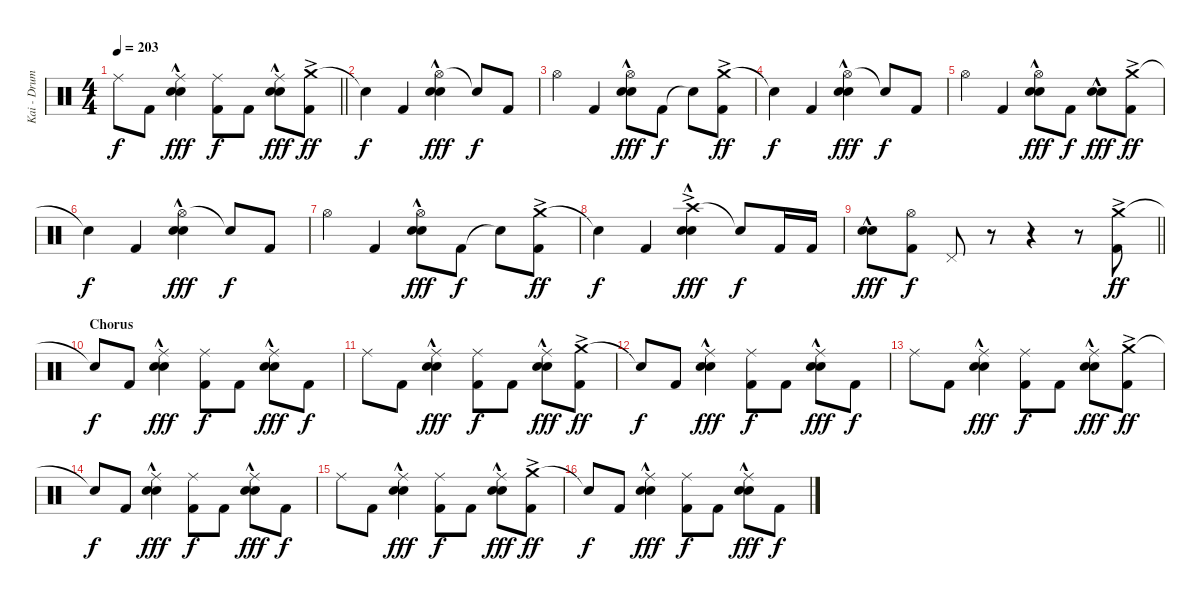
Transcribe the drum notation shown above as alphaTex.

\track ("Kai - Drums" "Kai - Drum") {instrument percussion}
\staff {score}
\articulation defaults
\ts (4 4)
\tempo 203
\clef neutral
\barLineRight lightlight
\ks c "Ride (middle)".8{dy f} "Kick (hit) 2".8
("Ride (middle)" "Electric Snare (hit)"{hac} "Snare (hit) 2"{hac}).4{dy fff} ("Ride (middle)" "Kick (hit) 2").8{dy f} "Kick (hit) 2".8 ("Ride (middle)" "Electric Snare (hit)"{hac} "Snare (hit) 2"{hac}).8{dy fff} ("Crash medium (hit)"{ac} "Kick (hit) 2").8{dy ff} |
"Snare (hit)"{t}.4{dy f} "Kick (hit) 2".4 ("Hi-Hat (open)" "Electric Snare (hit)"{hac} "Snare (hit) 2"{hac}).4{dy fff} "Snare (hit)"{t}.8{dy f} "Kick (hit) 2".8 |
"Hi-Hat (open)".4 "Kick (hit) 2".4 ("Hi-Hat (open)" "Electric Snare (hit)"{hac} "Snare (hit) 2"{hac}).8{dy fff} "Kick (hit) 2".8{dy f} "Snare (hit)"{t}.8 ("Crash medium (hit)"{ac} "Kick (hit) 2").8{dy ff} |
"Snare (hit)"{t}.4{dy f} "Kick (hit) 2".4 ("Hi-Hat (open)" "Electric Snare (hit)"{hac} "Snare (hit) 2"{hac}).4{dy fff} "Snare (hit)"{t}.8{dy f} "Kick (hit) 2".8 |
"Hi-Hat (open)".4 "Kick (hit) 2".4 ("Hi-Hat (open)" "Electric Snare (hit)"{hac} "Snare (hit) 2"{hac}).8{dy fff} "Kick (hit) 2".8{dy f} ("Electric Snare (hit)"{hac} "Snare (hit) 2"{hac}).8{dy fff} ("Crash medium (hit)"{ac} "Kick (hit) 2").8{dy ff} |
"Snare (hit)"{t}.4{dy f} "Kick (hit) 2".4 ("Hi-Hat (open)" "Electric Snare (hit)"{hac} "Snare (hit) 2"{hac}).4{dy fff} "Snare (hit)"{t}.8{dy f} "Kick (hit) 2".8 |
"Hi-Hat (open)".4 "Kick (hit) 2".4 ("Hi-Hat (open)" "Electric Snare (hit)"{hac} "Snare (hit) 2"{hac}).8{dy fff} "Kick (hit) 2".8{dy f} "Snare (hit)"{t}.8 ("Crash medium (hit)"{ac} "Kick (hit) 2").8{dy ff} |
"Snare (hit)"{t}.4{dy f} "Kick (hit) 2".4 ("Crash high (hit)"{ac} "Electric Snare (hit)"{hac} "Snare (hit) 2"{hac}).4{dy fff} "Snare (hit)"{t}.8{dy f} "Kick (hit) 2".16 "Kick (hit) 2".16 |
\barLineRight lightlight
("Electric Snare (hit)" "Snare (hit) 2"{hac}).8{dy fff} ("Hi-Hat (open)" "Kick (hit) 2").8{dy f} "Pedal Hi-Hat (hit)".8 r.8 r.4 r.8 ("Crash medium (hit)"{ac} "Kick (hit) 2").8{dy ff} |
\section ("" "Chorus")
"Snare (hit)"{t}.8{dy f} "Kick (hit) 2".8 ("Ride (middle)" "Electric Snare (hit)"{hac} "Snare (hit) 2"{hac}).4{dy fff} ("Ride (middle)" "Kick (hit) 2").8{dy f} "Kick (hit) 2".8 ("Ride (middle)" "Electric Snare (hit)"{hac} "Snare (hit) 2"{hac}).8{dy fff} "Kick (hit) 2".8{dy f} |
"Ride (middle)".8 "Kick (hit) 2".8 ("Ride (middle)" "Electric Snare (hit)"{hac} "Snare (hit) 2"{hac}).4{dy fff} ("Ride (middle)" "Kick (hit) 2").8{dy f} "Kick (hit) 2".8 ("Ride (middle)" "Electric Snare (hit)"{hac} "Snare (hit) 2"{hac}).8{dy fff} ("Crash medium (hit)"{ac} "Kick (hit) 2").8{dy ff} |
"Snare (hit)"{t}.8{dy f} "Kick (hit) 2".8 ("Ride (middle)" "Electric Snare (hit)"{hac} "Snare (hit) 2"{hac}).4{dy fff} ("Ride (middle)" "Kick (hit) 2").8{dy f} "Kick (hit) 2".8 ("Ride (middle)" "Electric Snare (hit)"{hac} "Snare (hit) 2"{hac}).8{dy fff} "Kick (hit) 2".8{dy f} |
"Ride (middle)".8 "Kick (hit) 2".8 ("Ride (middle)" "Electric Snare (hit)"{hac} "Snare (hit) 2"{hac}).4{dy fff} ("Ride (middle)" "Kick (hit) 2").8{dy f} "Kick (hit) 2".8 ("Ride (middle)" "Electric Snare (hit)"{hac} "Snare (hit) 2"{hac}).8{dy fff} ("Crash medium (hit)"{ac} "Kick (hit) 2").8{dy ff} |
"Snare (hit)"{t}.8{dy f} "Kick (hit) 2".8 ("Ride (middle)" "Electric Snare (hit)"{hac} "Snare (hit) 2"{hac}).4{dy fff} ("Ride (middle)" "Kick (hit) 2").8{dy f} "Kick (hit) 2".8 ("Ride (middle)" "Electric Snare (hit)"{hac} "Snare (hit) 2"{hac}).8{dy fff} "Kick (hit) 2".8{dy f} |
"Ride (middle)".8 "Kick (hit) 2".8 ("Ride (middle)" "Electric Snare (hit)"{hac} "Snare (hit) 2"{hac}).4{dy fff} ("Ride (middle)" "Kick (hit) 2").8{dy f} "Kick (hit) 2".8 ("Ride (middle)" "Electric Snare (hit)"{hac} "Snare (hit) 2"{hac}).8{dy fff} ("Crash medium (hit)"{ac} "Kick (hit) 2").8{dy ff} |
"Snare (hit)"{t}.8{dy f} "Kick (hit) 2".8 ("Ride (middle)" "Electric Snare (hit)"{hac} "Snare (hit) 2"{hac}).4{dy fff} ("Ride (middle)" "Kick (hit) 2").8{dy f} "Kick (hit) 2".8 ("Ride (middle)" "Electric Snare (hit)"{hac} "Snare (hit) 2"{hac}).8{dy fff} "Kick (hit) 2".8{dy f}
